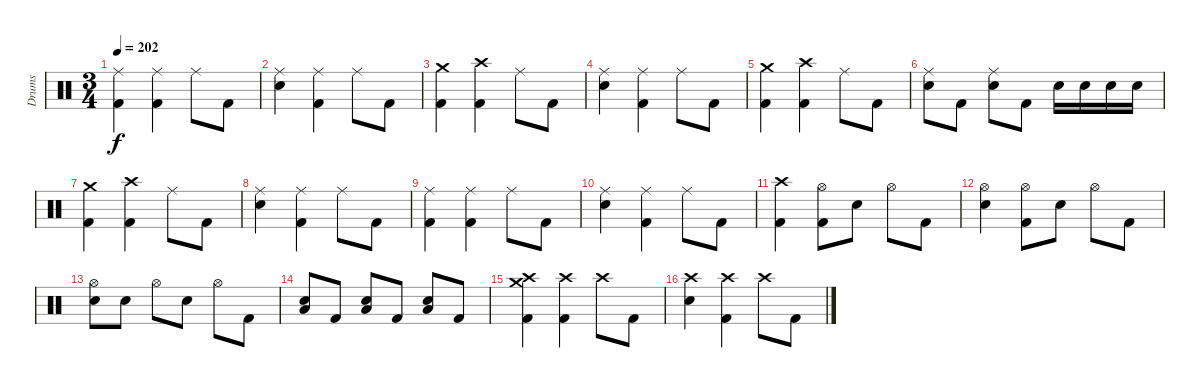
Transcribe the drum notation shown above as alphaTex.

\track ("Drums" "Drums") {instrument percussion}
\staff {score}
\articulation defaults
\ts (3 4)
\tempo 202
\clef neutral
\ks c
("Ride (middle)" "Kick (hit) 2").4{dy f} ("Ride (middle)" "Kick (hit) 2").4 "Ride (middle)".8 "Kick (hit) 2".8 |
("Ride (middle)" "Electric Snare (hit)").4 ("Ride (middle)" "Kick (hit) 2").4 "Ride (middle)".8 "Kick (hit) 2".8 |
("Crash medium (hit)" "Kick (hit) 2").4 ("Crash high (hit)" "Kick (hit) 2").4 "Ride (middle)".8 "Kick (hit) 2".8 |
("Ride (middle)" "Electric Snare (hit)").4 ("Ride (middle)" "Kick (hit) 2").4 "Ride (middle)".8 "Kick (hit) 2".8 |
("Crash medium (hit)" "Kick (hit) 2").4 ("Crash high (hit)" "Kick (hit) 2").4 "Ride (middle)".8 "Kick (hit) 2".8 |
("Ride (middle)" "Electric Snare (hit)").8 "Kick (hit) 2".8 ("Ride (middle)" "Electric Snare (hit)").8 "Kick (hit) 2".8 "Electric Snare (hit)".16 "Electric Snare (hit)".16 "Electric Snare (hit)".16 "Electric Snare (hit)".16 |
("Crash medium (hit)" "Kick (hit) 2").4 ("Crash high (hit)" "Kick (hit) 2").4 "Ride (middle)".8 "Kick (hit) 2".8 |
("Ride (middle)" "Electric Snare (hit)").4 ("Ride (middle)" "Kick (hit) 2").4 "Ride (middle)".8 "Kick (hit) 2".8 |
("Ride (middle)" "Kick (hit) 2").4 ("Ride (middle)" "Kick (hit) 2").4 "Ride (middle)".8 "Kick (hit) 2".8 |
("Ride (middle)" "Electric Snare (hit)").4 ("Ride (middle)" "Kick (hit) 2").4 "Ride (middle)".8 "Kick (hit) 2".8 |
("Crash high (hit)" "Kick (hit) 2").4 ("Hi-Hat (open)" "Kick (hit) 2").8 "Electric Snare (hit)".8 "Hi-Hat (open)".8 "Kick (hit) 2".8 |
("Hi-Hat (open)" "Electric Snare (hit)").4 ("Hi-Hat (open)" "Kick (hit) 2").8 "Electric Snare (hit)".8 "Hi-Hat (open)".8 "Kick (hit) 2".8 |
("Hi-Hat (open)" "Electric Snare (hit)").8 "Electric Snare (hit)".8 "Hi-Hat (open)".8 "Electric Snare (hit)".8 "Hi-Hat (open)".8 "Kick (hit) 2".8 |
("Electric Snare (hit)" "Low Floor Tom (hit)").8 "Kick (hit) 2".8 ("Electric Snare (hit)" "Low Floor Tom (hit)").8 "Kick (hit) 2".8 ("Electric Snare (hit)" "Low Floor Tom (hit)").8 "Kick (hit) 2".8 |
("Crash medium (hit)" "Crash high (hit)" "Kick (hit) 2").4 ("Crash high (hit)" "Kick (hit) 2").4 "Crash high (hit)".8 "Kick (hit) 2".8 |
("Crash high (hit)" "Electric Snare (hit)").4 ("Crash high (hit)" "Kick (hit) 2").4 "Crash high (hit)".8 "Kick (hit) 2".8
